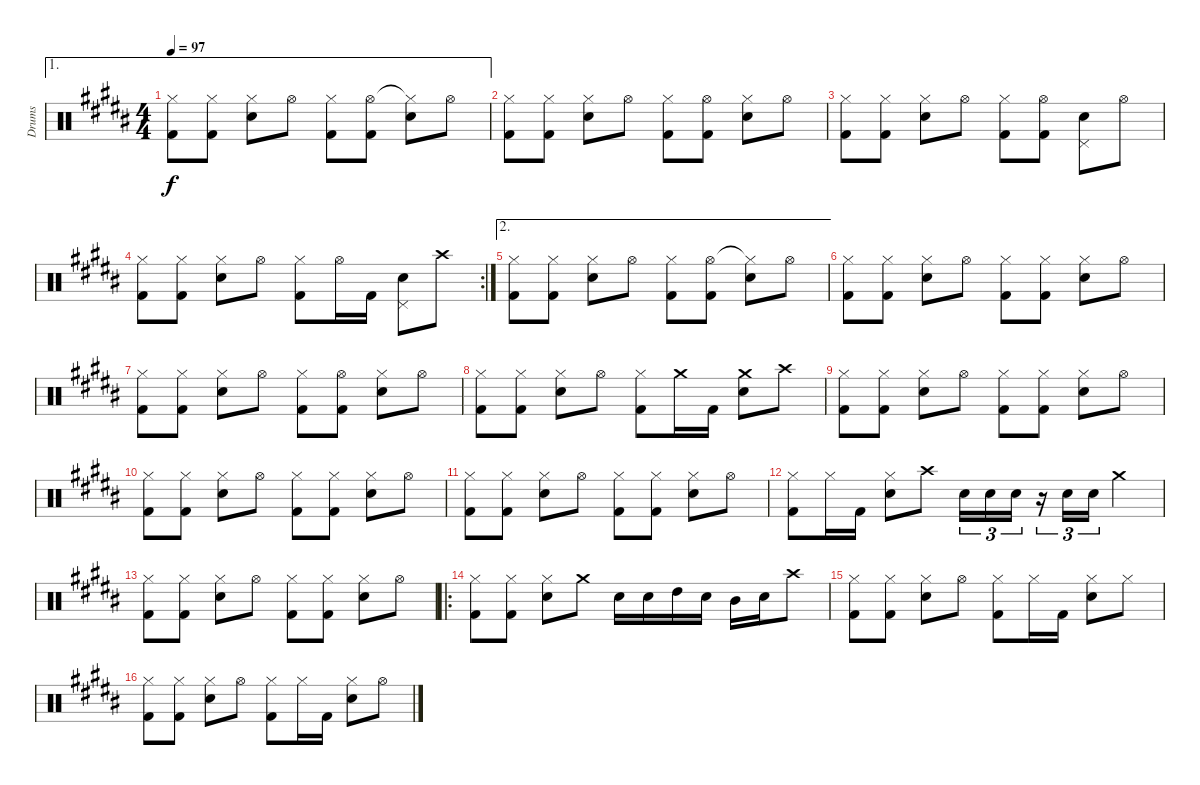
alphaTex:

\track ("Drums" "Drums") {instrument percussion}
\staff {score}
\articulation defaults
\ae 1
\ts (4 4)
\tempo 97
\clef neutral
\ks b
("Hi-Hat (closed)" "Kick (hit) 2").8{dy f} ("Hi-Hat (closed)" "Kick (hit) 2").8 ("Hi-Hat (closed)" "Snare (hit) 2").8 "Hi-Hat (open)".8 ("Hi-Hat (closed)" "Kick (hit) 2").8 ("Hi-Hat (open)" "Kick (hit) 2").8 ("Hi-Hat (closed)"{t} "Snare (hit) 2").8 "Hi-Hat (open)".8 |
("Hi-Hat (closed)" "Kick (hit) 2").8 ("Hi-Hat (closed)" "Kick (hit) 2").8 ("Hi-Hat (closed)" "Snare (hit) 2").8 "Hi-Hat (open)".8 ("Hi-Hat (closed)" "Kick (hit) 2").8 ("Hi-Hat (open)" "Kick (hit) 2").8 ("Hi-Hat (closed)" "Snare (hit) 2").8 "Hi-Hat (open)".8 |
("Hi-Hat (closed)" "Kick (hit) 2").8 ("Hi-Hat (closed)" "Kick (hit) 2").8 ("Hi-Hat (closed)" "Snare (hit) 2").8 "Hi-Hat (open)".8 ("Hi-Hat (closed)" "Kick (hit) 2").8 ("Hi-Hat (open)" "Kick (hit) 2").8 ("Pedal Hi-Hat (hit)" "Snare (hit) 2").8 "Hi-Hat (open)".8 |
\rc 2
("Hi-Hat (closed)" "Kick (hit) 2").8 ("Hi-Hat (closed)" "Kick (hit) 2").8 ("Hi-Hat (closed)" "Snare (hit) 2").8 "Hi-Hat (open)".8 ("Hi-Hat (closed)" "Kick (hit) 2").8 "Hi-Hat (open)".16 "Kick (hit) 2".16 ("Pedal Hi-Hat (hit)" "Snare (hit) 2").8 "Crash high (hit)".8 |
\ae 2
("Hi-Hat (closed)" "Kick (hit) 2").8 ("Hi-Hat (closed)" "Kick (hit) 2").8 ("Hi-Hat (closed)" "Snare (hit) 2").8 "Hi-Hat (open)".8 ("Hi-Hat (closed)" "Kick (hit) 2").8 ("Hi-Hat (open)" "Kick (hit) 2").8 ("Hi-Hat (closed)"{t} "Snare (hit) 2").8 "Hi-Hat (open)".8 |
("Hi-Hat (closed)" "Kick (hit) 2").8 ("Hi-Hat (closed)" "Kick (hit) 2").8 ("Hi-Hat (closed)" "Snare (hit) 2").8 "Hi-Hat (open)".8 ("Hi-Hat (closed)" "Kick (hit) 2").8 ("Hi-Hat (closed)" "Kick (hit) 2").8 ("Hi-Hat (closed)" "Snare (hit) 2").8 "Hi-Hat (open)".8 |
("Hi-Hat (closed)" "Kick (hit) 2").8 ("Hi-Hat (closed)" "Kick (hit) 2").8 ("Hi-Hat (closed)" "Snare (hit) 2").8 "Hi-Hat (open)".8 ("Hi-Hat (closed)" "Kick (hit) 2").8 ("Hi-Hat (open)" "Kick (hit) 2").8 ("Hi-Hat (closed)" "Snare (hit) 2").8 "Hi-Hat (open)".8 |
("Hi-Hat (closed)" "Kick (hit) 2").8 ("Hi-Hat (closed)" "Kick (hit) 2").8 ("Hi-Hat (closed)" "Snare (hit) 2").8 "Hi-Hat (open)".8 ("Hi-Hat (closed)" "Kick (hit) 2").8 "Crash medium (hit)".16 "Kick (hit) 2".16 ("Crash medium (hit)" "Snare (hit) 2").8 "Crash high (hit)".8 |
("Hi-Hat (closed)" "Kick (hit) 2").8 ("Hi-Hat (closed)" "Kick (hit) 2").8 ("Hi-Hat (closed)" "Snare (hit) 2").8 "Hi-Hat (open)".8 ("Hi-Hat (closed)" "Kick (hit) 2").8 ("Hi-Hat (closed)" "Kick (hit) 2").8 ("Hi-Hat (closed)" "Snare (hit) 2").8 "Hi-Hat (open)".8 |
("Hi-Hat (closed)" "Kick (hit) 2").8 ("Hi-Hat (closed)" "Kick (hit) 2").8 ("Hi-Hat (closed)" "Snare (hit) 2").8 "Hi-Hat (open)".8 ("Hi-Hat (closed)" "Kick (hit) 2").8 ("Hi-Hat (closed)" "Kick (hit) 2").8 ("Hi-Hat (closed)" "Snare (hit) 2").8 "Hi-Hat (open)".8 |
("Hi-Hat (closed)" "Kick (hit) 2").8 ("Hi-Hat (closed)" "Kick (hit) 2").8 ("Hi-Hat (closed)" "Snare (hit) 2").8 "Hi-Hat (open)".8 ("Hi-Hat (closed)" "Kick (hit) 2").8 ("Hi-Hat (closed)" "Kick (hit) 2").8 ("Hi-Hat (closed)" "Snare (hit) 2").8 "Hi-Hat (open)".8 |
("Hi-Hat (closed)" "Kick (hit) 2").8 "Hi-Hat (closed)".16 "Kick (hit) 2".16 ("Hi-Hat (closed)" "Snare (hit) 2").8 "Crash high (hit)".8 "Electric Snare (hit)".16{tu (3 2)} "Electric Snare (hit)".16{tu (3 2)} "Electric Snare (hit)".16{tu (3 2)} r.16{tu (3 2)} "Electric Snare (hit)".16{tu (3 2)} "Electric Snare (hit)".16{tu (3 2)} "Crash medium (hit)".4 |
("Hi-Hat (closed)" "Kick (hit) 2").8 ("Hi-Hat (closed)" "Kick (hit) 2").8 ("Hi-Hat (closed)" "Snare (hit) 2").8 "Hi-Hat (open)".8 ("Hi-Hat (closed)" "Kick (hit) 2").8 ("Hi-Hat (closed)" "Kick (hit) 2").8 ("Hi-Hat (closed)" "Snare (hit) 2").8 "Hi-Hat (open)".8 |
\ro
("Hi-Hat (closed)" "Kick (hit) 2").8 ("Hi-Hat (closed)" "Kick (hit) 2").8 ("Hi-Hat (closed)" "Snare (hit) 2").8 "Crash medium (hit)".8 "Electric Snare (hit)".16 "Electric Snare (hit)".16 "High Tom (hit)".16 "Electric Snare (hit)".16 "Mid Tom (hit)".16 "Electric Snare (hit)".16 "Crash high (hit)".8 |
("Hi-Hat (closed)" "Kick (hit) 2").8 ("Hi-Hat (closed)" "Kick (hit) 2").8 ("Hi-Hat (closed)" "Snare (hit) 2").8 "Hi-Hat (open)".8 ("Hi-Hat (closed)" "Kick (hit) 2").8 "Hi-Hat (closed)".16 "Kick (hit) 2".16 ("Hi-Hat (closed)" "Snare (hit) 2").8 "Hi-Hat (closed)".8 |
("Hi-Hat (closed)" "Kick (hit) 2").8 ("Hi-Hat (closed)" "Kick (hit) 2").8 ("Hi-Hat (closed)" "Snare (hit) 2").8 "Hi-Hat (open)".8 ("Hi-Hat (closed)" "Kick (hit) 2").8 "Hi-Hat (closed)".16 "Kick (hit) 2".16 ("Hi-Hat (closed)" "Snare (hit) 2").8 "Hi-Hat (open)".8
